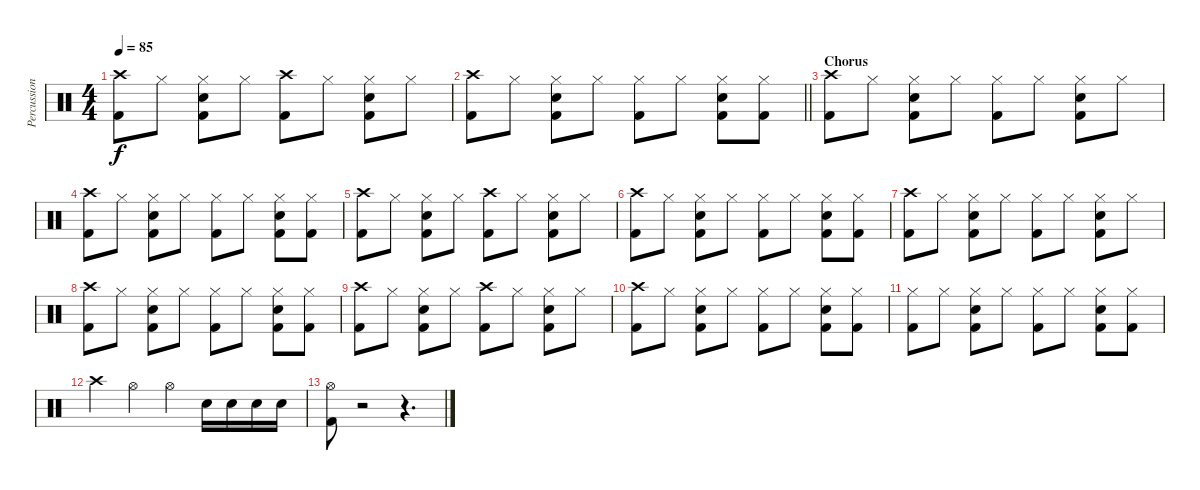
\track ("Percussion" "Percussion") {instrument percussion}
\staff {score}
\articulation defaults
\ts (4 4)
\tempo 85
\clef neutral
\ks c
("Crash high (hit)" "Kick (hit) 2").8{dy f} "Hi-Hat (closed)".8 ("Hi-Hat (closed)" "Electric Snare (hit)" "Kick (hit) 2").8 "Hi-Hat (closed)".8 ("Crash high (hit)" "Kick (hit) 2").8 "Hi-Hat (closed)".8 ("Hi-Hat (closed)" "Electric Snare (hit)" "Kick (hit) 2").8 "Hi-Hat (closed)".8 |
\barLineRight lightlight
("Crash high (hit)" "Kick (hit) 2").8 "Hi-Hat (closed)".8 ("Hi-Hat (closed)" "Electric Snare (hit)" "Kick (hit) 2").8 "Hi-Hat (closed)".8 ("Hi-Hat (closed)" "Kick (hit) 2").8 "Hi-Hat (closed)".8 ("Hi-Hat (closed)" "Electric Snare (hit)" "Kick (hit) 2").8 ("Hi-Hat (closed)" "Kick (hit) 2").8 |
\section ("" "Chorus")
("Crash high (hit)" "Kick (hit) 2").8 "Hi-Hat (closed)".8 ("Hi-Hat (closed)" "Electric Snare (hit)" "Kick (hit) 2").8 "Hi-Hat (closed)".8 ("Hi-Hat (closed)" "Kick (hit) 2").8 "Hi-Hat (closed)".8 ("Hi-Hat (closed)" "Electric Snare (hit)" "Kick (hit) 2").8 "Hi-Hat (closed)".8 |
("Crash high (hit)" "Kick (hit) 2").8 "Hi-Hat (closed)".8 ("Hi-Hat (closed)" "Electric Snare (hit)" "Kick (hit) 2").8 "Hi-Hat (closed)".8 ("Hi-Hat (closed)" "Kick (hit) 2").8 "Hi-Hat (closed)".8 ("Hi-Hat (closed)" "Electric Snare (hit)" "Kick (hit) 2").8 ("Hi-Hat (closed)" "Kick (hit) 2").8 |
("Crash high (hit)" "Kick (hit) 2").8 "Hi-Hat (closed)".8 ("Hi-Hat (closed)" "Electric Snare (hit)" "Kick (hit) 2").8 "Hi-Hat (closed)".8 ("Crash high (hit)" "Kick (hit) 2").8 "Hi-Hat (closed)".8 ("Hi-Hat (closed)" "Electric Snare (hit)" "Kick (hit) 2").8 "Hi-Hat (closed)".8 |
("Crash high (hit)" "Kick (hit) 2").8 "Hi-Hat (closed)".8 ("Hi-Hat (closed)" "Electric Snare (hit)" "Kick (hit) 2").8 "Hi-Hat (closed)".8 ("Hi-Hat (closed)" "Kick (hit) 2").8 "Hi-Hat (closed)".8 ("Hi-Hat (closed)" "Electric Snare (hit)" "Kick (hit) 2").8 ("Hi-Hat (closed)" "Kick (hit) 2").8 |
("Crash high (hit)" "Kick (hit) 2").8 "Hi-Hat (closed)".8 ("Hi-Hat (closed)" "Electric Snare (hit)" "Kick (hit) 2").8 "Hi-Hat (closed)".8 ("Hi-Hat (closed)" "Kick (hit) 2").8 "Hi-Hat (closed)".8 ("Hi-Hat (closed)" "Electric Snare (hit)" "Kick (hit) 2").8 "Hi-Hat (closed)".8 |
("Crash high (hit)" "Kick (hit) 2").8 "Hi-Hat (closed)".8 ("Hi-Hat (closed)" "Electric Snare (hit)" "Kick (hit) 2").8 "Hi-Hat (closed)".8 ("Hi-Hat (closed)" "Kick (hit) 2").8 "Hi-Hat (closed)".8 ("Hi-Hat (closed)" "Electric Snare (hit)" "Kick (hit) 2").8 ("Hi-Hat (closed)" "Kick (hit) 2").8 |
("Crash high (hit)" "Kick (hit) 2").8 "Hi-Hat (closed)".8 ("Hi-Hat (closed)" "Electric Snare (hit)" "Kick (hit) 2").8 "Hi-Hat (closed)".8 ("Crash high (hit)" "Kick (hit) 2").8 "Hi-Hat (closed)".8 ("Hi-Hat (closed)" "Electric Snare (hit)" "Kick (hit) 2").8 "Hi-Hat (closed)".8 |
("Crash high (hit)" "Kick (hit) 2").8 "Hi-Hat (closed)".8 ("Hi-Hat (closed)" "Electric Snare (hit)" "Kick (hit) 2").8 "Hi-Hat (closed)".8 ("Hi-Hat (closed)" "Kick (hit) 2").8 "Hi-Hat (closed)".8 ("Hi-Hat (closed)" "Electric Snare (hit)" "Kick (hit) 2").8 ("Hi-Hat (closed)" "Kick (hit) 2").8 |
("Hi-Hat (closed)" "Kick (hit) 2").8 "Hi-Hat (closed)".8 ("Hi-Hat (closed)" "Electric Snare (hit)" "Kick (hit) 2").8 "Hi-Hat (closed)".8 ("Hi-Hat (closed)" "Kick (hit) 2").8 "Hi-Hat (closed)".8 ("Hi-Hat (closed)" "Electric Snare (hit)" "Kick (hit) 2").8 ("Hi-Hat (closed)" "Kick (hit) 2").8 |
"Crash high (hit)".4 "Hi-Hat (open)".4 "Hi-Hat (open)".4 "Electric Snare (hit)".16 "Electric Snare (hit)".16 "Electric Snare (hit)".16 "Electric Snare (hit)".16 |
("Hi-Hat (open)" "Kick (hit) 2").8 r.2 r.4{d}
